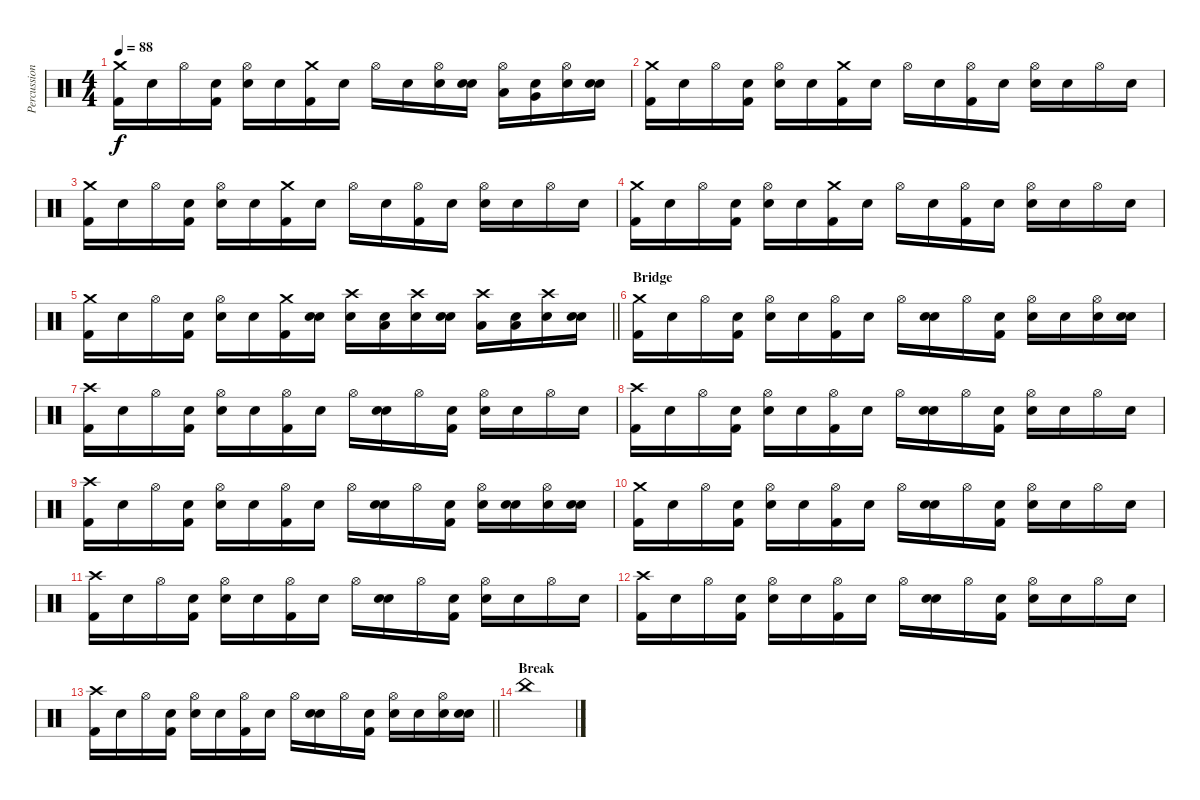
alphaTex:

\track ("Percussion" "Percussion") {instrument percussion}
\staff {score}
\articulation defaults
\ts (4 4)
\tempo 88
\clef neutral
\ks c
("Crash medium (hit)" "Kick (hit) 2").16{dy f} "Snare (hit)".16 "Hi-Hat (open)".16 ("Snare (hit)" "Kick (hit) 2").16 ("Hi-Hat (open)" "Electric Snare (hit)").16 "Snare (hit)".16 ("Crash medium (hit)" "Kick (hit) 2").16 "Snare (hit)".16 "Hi-Hat (open)".16 "Snare (hit)".16 ("Hi-Hat (open)" "Electric Snare (hit)").16 ("Snare (hit)" "Electric Snare (hit)").16 ("Hi-Hat (open)" "Low Tom (hit)").16 ("Snare (hit)" "Very Low Tom (hit)").16 ("Hi-Hat (open)" "Electric Snare (hit)").16 ("Snare (hit)" "Electric Snare (hit)").16 |
("Crash medium (hit)" "Kick (hit) 2").16 "Snare (hit)".16 "Hi-Hat (open)".16 ("Snare (hit)" "Kick (hit) 2").16 ("Hi-Hat (open)" "Electric Snare (hit)").16 "Snare (hit)".16 ("Crash medium (hit)" "Kick (hit) 2").16 "Snare (hit)".16 "Hi-Hat (open)".16 "Snare (hit)".16 ("Hi-Hat (open)" "Kick (hit) 2").16 "Snare (hit)".16 ("Hi-Hat (open)" "Electric Snare (hit)").16 "Snare (hit)".16 "Hi-Hat (open)".16 "Snare (hit)".16 |
("Crash medium (hit)" "Kick (hit) 2").16 "Snare (hit)".16 "Hi-Hat (open)".16 ("Snare (hit)" "Kick (hit) 2").16 ("Hi-Hat (open)" "Electric Snare (hit)").16 "Snare (hit)".16 ("Crash medium (hit)" "Kick (hit) 2").16 "Snare (hit)".16 "Hi-Hat (open)".16 "Snare (hit)".16 ("Hi-Hat (open)" "Kick (hit) 2").16 "Snare (hit)".16 ("Hi-Hat (open)" "Electric Snare (hit)").16 "Snare (hit)".16 "Hi-Hat (open)".16 "Snare (hit)".16 |
("Crash medium (hit)" "Kick (hit) 2").16 "Snare (hit)".16 "Hi-Hat (open)".16 ("Snare (hit)" "Kick (hit) 2").16 ("Hi-Hat (open)" "Electric Snare (hit)").16 "Snare (hit)".16 ("Crash medium (hit)" "Kick (hit) 2").16 "Snare (hit)".16 "Hi-Hat (open)".16 "Snare (hit)".16 ("Hi-Hat (open)" "Kick (hit) 2").16 "Snare (hit)".16 ("Hi-Hat (open)" "Electric Snare (hit)").16 "Snare (hit)".16 "Hi-Hat (open)".16 "Snare (hit)".16 |
\barLineRight lightlight
("Crash medium (hit)" "Kick (hit) 2").16 "Snare (hit)".16 "Hi-Hat (open)".16 ("Snare (hit)" "Kick (hit) 2").16 ("Hi-Hat (open)" "Electric Snare (hit)").16 "Snare (hit)".16 ("Crash medium (hit)" "Kick (hit) 2").16 ("Snare (hit)" "Electric Snare (hit)").16 ("Crash high (hit)" "Electric Snare (hit)").16 ("Snare (hit)" "Low Tom (hit)").16 ("Crash high (hit)" "Electric Snare (hit)").16 ("Snare (hit)" "Electric Snare (hit)").16 ("Crash high (hit)" "Low Tom (hit)").16 ("Snare (hit)" "Low Tom (hit)").16 ("Crash high (hit)" "Electric Snare (hit)").16 ("Snare (hit)" "Electric Snare (hit)").16 |
\section ("" "Bridge")
("Crash medium (hit)" "Kick (hit) 2").16 "Snare (hit)".16 "Hi-Hat (open)".16 ("Snare (hit)" "Kick (hit) 2").16 ("Hi-Hat (open)" "Electric Snare (hit)").16 "Snare (hit)".16 ("Hi-Hat (open)" "Kick (hit) 2").16 "Snare (hit)".16 "Hi-Hat (open)".16 ("Snare (hit)" "Electric Snare (hit)").16 "Hi-Hat (open)".16 ("Snare (hit)" "Kick (hit) 2").16 ("Hi-Hat (open)" "Electric Snare (hit)").16 "Snare (hit)".16 ("Hi-Hat (open)" "Electric Snare (hit)").16 ("Snare (hit)" "Electric Snare (hit)").16 |
("Crash high (hit)" "Kick (hit) 2").16 "Snare (hit)".16 "Hi-Hat (open)".16 ("Snare (hit)" "Kick (hit) 2").16 ("Hi-Hat (open)" "Electric Snare (hit)").16 "Snare (hit)".16 ("Hi-Hat (open)" "Kick (hit) 2").16 "Snare (hit)".16 "Hi-Hat (open)".16 ("Snare (hit)" "Electric Snare (hit)").16 "Hi-Hat (open)".16 ("Snare (hit)" "Kick (hit) 2").16 ("Hi-Hat (open)" "Electric Snare (hit)").16 "Snare (hit)".16 "Hi-Hat (open)".16 "Snare (hit)".16 |
("Crash high (hit)" "Kick (hit) 2").16 "Snare (hit)".16 "Hi-Hat (open)".16 ("Snare (hit)" "Kick (hit) 2").16 ("Hi-Hat (open)" "Electric Snare (hit)").16 "Snare (hit)".16 ("Hi-Hat (open)" "Kick (hit) 2").16 "Snare (hit)".16 "Hi-Hat (open)".16 ("Snare (hit)" "Electric Snare (hit)").16 "Hi-Hat (open)".16 ("Snare (hit)" "Kick (hit) 2").16 ("Hi-Hat (open)" "Electric Snare (hit)").16 "Snare (hit)".16 "Hi-Hat (open)".16 "Snare (hit)".16 |
("Crash high (hit)" "Kick (hit) 2").16 "Snare (hit)".16 "Hi-Hat (open)".16 ("Snare (hit)" "Kick (hit) 2").16 ("Hi-Hat (open)" "Electric Snare (hit)").16 "Snare (hit)".16 ("Hi-Hat (open)" "Kick (hit) 2").16 "Snare (hit)".16 "Hi-Hat (open)".16 ("Snare (hit)" "Electric Snare (hit)").16 "Hi-Hat (open)".16 ("Snare (hit)" "Kick (hit) 2").16 ("Hi-Hat (open)" "Electric Snare (hit)").16 ("Snare (hit)" "Electric Snare (hit)").16 ("Hi-Hat (open)" "Electric Snare (hit)").16 ("Snare (hit)" "Electric Snare (hit)").16 |
("Crash medium (hit)" "Kick (hit) 2").16 "Snare (hit)".16 "Hi-Hat (open)".16 ("Snare (hit)" "Kick (hit) 2").16 ("Hi-Hat (open)" "Electric Snare (hit)").16 "Snare (hit)".16 ("Hi-Hat (open)" "Kick (hit) 2").16 "Snare (hit)".16 "Hi-Hat (open)".16 ("Snare (hit)" "Electric Snare (hit)").16 "Hi-Hat (open)".16 ("Snare (hit)" "Kick (hit) 2").16 ("Hi-Hat (open)" "Electric Snare (hit)").16 "Snare (hit)".16 "Hi-Hat (open)".16 "Snare (hit)".16 |
("Crash high (hit)" "Kick (hit) 2").16 "Snare (hit)".16 "Hi-Hat (open)".16 ("Snare (hit)" "Kick (hit) 2").16 ("Hi-Hat (open)" "Electric Snare (hit)").16 "Snare (hit)".16 ("Hi-Hat (open)" "Kick (hit) 2").16 "Snare (hit)".16 "Hi-Hat (open)".16 ("Snare (hit)" "Electric Snare (hit)").16 "Hi-Hat (open)".16 ("Snare (hit)" "Kick (hit) 2").16 ("Hi-Hat (open)" "Electric Snare (hit)").16 "Snare (hit)".16 "Hi-Hat (open)".16 "Snare (hit)".16 |
("Crash high (hit)" "Kick (hit) 2").16 "Snare (hit)".16 "Hi-Hat (open)".16 ("Snare (hit)" "Kick (hit) 2").16 ("Hi-Hat (open)" "Electric Snare (hit)").16 "Snare (hit)".16 ("Hi-Hat (open)" "Kick (hit) 2").16 "Snare (hit)".16 "Hi-Hat (open)".16 ("Snare (hit)" "Electric Snare (hit)").16 "Hi-Hat (open)".16 ("Snare (hit)" "Kick (hit) 2").16 ("Hi-Hat (open)" "Electric Snare (hit)").16 "Snare (hit)".16 "Hi-Hat (open)".16 "Snare (hit)".16 |
\barLineRight lightlight
("Crash high (hit)" "Kick (hit) 2").16 "Snare (hit)".16 "Hi-Hat (open)".16 ("Snare (hit)" "Kick (hit) 2").16 ("Hi-Hat (open)" "Electric Snare (hit)").16 "Snare (hit)".16 ("Hi-Hat (open)" "Kick (hit) 2").16 "Snare (hit)".16 "Hi-Hat (open)".16 ("Snare (hit)" "Electric Snare (hit)").16 "Hi-Hat (open)".16 ("Snare (hit)" "Kick (hit) 2").16 ("Hi-Hat (open)" "Electric Snare (hit)").16 "Snare (hit)".16 ("Hi-Hat (open)" "Electric Snare (hit)").16 ("Snare (hit)" "Electric Snare (hit)").16 |
\section ("" "Break")
"China (hit)".1
